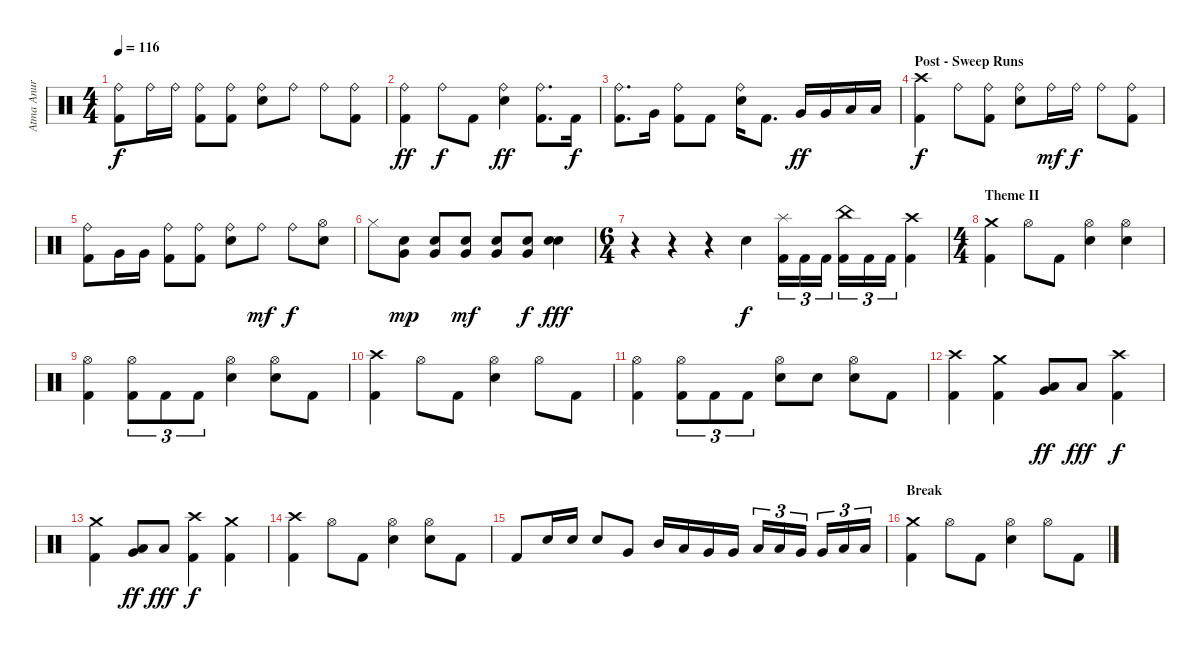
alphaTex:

\track ("Atma Anur " "Atma Anur ") {instrument percussion}
\staff {score}
\articulation defaults
\ts (4 4)
\tempo 116
\clef neutral
\ks c
("Ride (bell)" "Kick (hit) 2").8{dy f} "Ride (bell)".16 "Ride (bell)".16 ("Ride (bell)" "Kick (hit) 2").8 ("Ride (bell)" "Kick (hit) 2").8 ("Ride (bell)" "Snare (hit) 2").8 "Ride (bell)".8 "Ride (bell)".8 ("Ride (bell)" "Kick (hit) 2").8 |
("Ride (bell)" "Kick (hit) 2").4{dy ff} "Ride (bell)".8{dy f} "Kick (hit) 2".8 ("Ride (bell)" "Snare (hit) 2").4{dy ff} ("Ride (bell)" "Kick (hit) 2").8{d} "Kick (hit) 2".16{dy f} |
("Ride (bell)" "Kick (hit) 2").8{d} "Very Low Tom (hit)".16 ("Ride (bell)" "Kick (hit) 2").8 "Kick (hit) 2".8 ("Ride (bell)" "Snare (hit) 2").16 "Kick (hit) 2".8{d} "Very Low Tom (hit)".16{dy ff} "Very Low Tom (hit)".16 "Low Tom (hit)".16 "Low Tom (hit)".16 |
\section ("" "Post - Sweep Runs")
("Crash high (hit)" "Kick (hit) 2").4{dy f} "Ride (bell)".8 ("Ride (bell)" "Kick (hit) 2").8 ("Ride (bell)" "Snare (hit) 2").8 "Ride (bell)".16{dy mf} "Ride (bell)".16{dy f} "Ride (bell)".8 ("Ride (bell)" "Kick (hit) 2").8 |
("Ride (bell)" "Kick (hit) 2").8 "Very Low Tom (hit)".16 "Very Low Tom (hit)".16 ("Ride (bell)" "Kick (hit) 2").8 ("Ride (bell)" "Kick (hit) 2").8 ("Ride (bell)" "Snare (hit) 2").8 "Ride (bell)".8{dy mf} "Ride (bell)".8{dy f} ("Hi-Hat (open)" "Snare (hit) 2").8 |
"Hi-Hat (closed)".8 ("Very Low Tom (hit)" "Snare (hit) 2").8{dy mp} ("Very Low Tom (hit)" "Snare (hit) 2").8 ("Very Low Tom (hit)" "Snare (hit) 2").8{dy mf} ("Very Low Tom (hit)" "Snare (hit) 2").8 ("Very Low Tom (hit)" "Snare (hit) 2").8{dy f} ("Snare (hit) 2" "Snare (hit) 2").4{dy fff} |
\ts (6 4)
r.4 r.4 r.4 "Snare (hit) 2".4{dy f} ("Splash (hit)" "Kick (hit) 2").16{tu (3 2)} "Kick (hit) 2".16{tu (3 2)} "Kick (hit) 2".16{tu (3 2)} ("China (hit)" "Kick (hit) 2").16{tu (3 2)} "Kick (hit) 2".16{tu (3 2)} "Kick (hit) 2".16{tu (3 2)} ("Crash high (hit)" "Kick (hit) 2").4 |
\ts (4 4)
\section ("" "Theme II")
("Crash medium (hit)" "Kick (hit) 2").4 "Hi-Hat (open)".8 "Kick (hit) 2".8 ("Hi-Hat (open)" "Snare (hit) 2").4 ("Hi-Hat (open)" "Snare (hit) 2").4 |
("Hi-Hat (open)" "Kick (hit) 2").4 ("Hi-Hat (open)" "Kick (hit) 2").8{tu (3 2)} "Kick (hit) 2".8{tu (3 2)} "Kick (hit) 2".8{tu (3 2)} ("Hi-Hat (open)" "Snare (hit) 2").4 ("Hi-Hat (open)" "Snare (hit) 2").8 "Kick (hit) 2".8 |
("Crash high (hit)" "Kick (hit) 2").4 "Hi-Hat (open)".8 "Kick (hit) 2".8 ("Hi-Hat (open)" "Snare (hit) 2").4 "Hi-Hat (open)".8 "Kick (hit) 2".8 |
("Hi-Hat (open)" "Kick (hit) 2").4 ("Hi-Hat (open)" "Kick (hit) 2").8{tu (3 2)} "Kick (hit) 2".8{tu (3 2)} "Kick (hit) 2".8{tu (3 2)} ("Hi-Hat (open)" "Snare (hit) 2").8 "Snare (hit) 2".8 ("Hi-Hat (open)" "Snare (hit) 2").8 "Kick (hit) 2".8 |
("Crash high (hit)" "Kick (hit) 2").4 ("Crash medium (hit)" "Kick (hit) 2").4 ("Low Tom (hit)" "Very Low Tom (hit)").8{dy ff} "Low Floor Tom (hit)".8{dy fff} ("Crash high (hit)" "Kick (hit) 2").4{dy f} |
("Crash medium (hit)" "Kick (hit) 2").4 ("Low Tom (hit)" "Very Low Tom (hit)").8{dy ff} "Low Floor Tom (hit)".8{dy fff} ("Crash high (hit)" "Kick (hit) 2").4{dy f} ("Crash medium (hit)" "Kick (hit) 2").4 |
("Crash high (hit)" "Kick (hit) 2").4 "Hi-Hat (open)".8 "Kick (hit) 2".8 ("Hi-Hat (open)" "Snare (hit) 2").4 ("Hi-Hat (open)" "Snare (hit) 2").8 "Kick (hit) 2".8 |
"Kick (hit) 2".8 "Snare (hit) 2".16 "Snare (hit) 2".16 "Snare (hit) 2".8 "Very Low Tom (hit)".8 "Mid Tom (hit)".16 "Low Tom (hit)".16 "Very Low Tom (hit)".16 "Very Low Tom (hit)".16 "Low Tom (hit)".16{tu (3 2)} "Low Tom (hit)".16{tu (3 2)} "Very Low Tom (hit)".16{tu (3 2)} "Very Low Tom (hit)".16{tu (3 2)} "Low Floor Tom (hit)".16{tu (3 2)} "Low Floor Tom (hit)".16{tu (3 2)} |
\section ("" "Break ")
("Crash medium (hit)" "Kick (hit) 2").4 "Hi-Hat (open)".8 "Kick (hit) 2".8 ("Hi-Hat (open)" "Snare (hit) 2").4 "Hi-Hat (open)".8 "Kick (hit) 2".8
